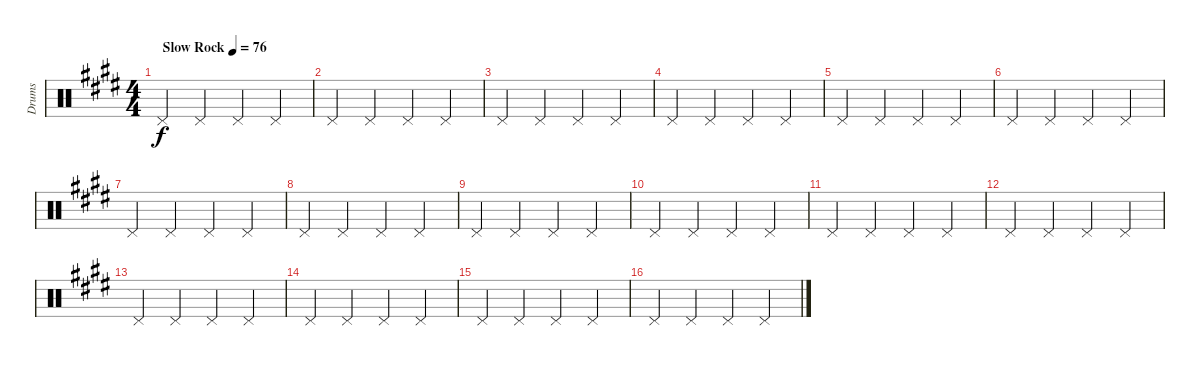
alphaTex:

\track ("Drums" "Drums") {instrument percussion}
\staff {score}
\articulation defaults
\ts (4 4)
\tempo (76 "Slow Rock")
\clef neutral
\ks c#minor "Pedal Hi-Hat (hit)".4{dy f} "Pedal Hi-Hat (hit)".4 "Pedal Hi-Hat (hit)".4 "Pedal Hi-Hat (hit)".4
|
"Pedal Hi-Hat (hit)".4 "Pedal Hi-Hat (hit)".4 "Pedal Hi-Hat (hit)".4 "Pedal Hi-Hat (hit)".4 |
"Pedal Hi-Hat (hit)".4 "Pedal Hi-Hat (hit)".4 "Pedal Hi-Hat (hit)".4 "Pedal Hi-Hat (hit)".4 |
"Pedal Hi-Hat (hit)".4 "Pedal Hi-Hat (hit)".4 "Pedal Hi-Hat (hit)".4 "Pedal Hi-Hat (hit)".4 |
"Pedal Hi-Hat (hit)".4 "Pedal Hi-Hat (hit)".4 "Pedal Hi-Hat (hit)".4 "Pedal Hi-Hat (hit)".4 |
"Pedal Hi-Hat (hit)".4 "Pedal Hi-Hat (hit)".4 "Pedal Hi-Hat (hit)".4 "Pedal Hi-Hat (hit)".4 |
"Pedal Hi-Hat (hit)".4 "Pedal Hi-Hat (hit)".4 "Pedal Hi-Hat (hit)".4 "Pedal Hi-Hat (hit)".4 |
"Pedal Hi-Hat (hit)".4 "Pedal Hi-Hat (hit)".4 "Pedal Hi-Hat (hit)".4 "Pedal Hi-Hat (hit)".4 |
"Pedal Hi-Hat (hit)".4 "Pedal Hi-Hat (hit)".4 "Pedal Hi-Hat (hit)".4 "Pedal Hi-Hat (hit)".4 |
"Pedal Hi-Hat (hit)".4 "Pedal Hi-Hat (hit)".4 "Pedal Hi-Hat (hit)".4 "Pedal Hi-Hat (hit)".4 |
"Pedal Hi-Hat (hit)".4 "Pedal Hi-Hat (hit)".4 "Pedal Hi-Hat (hit)".4 "Pedal Hi-Hat (hit)".4 |
"Pedal Hi-Hat (hit)".4 "Pedal Hi-Hat (hit)".4 "Pedal Hi-Hat (hit)".4 "Pedal Hi-Hat (hit)".4 |
"Pedal Hi-Hat (hit)".4 "Pedal Hi-Hat (hit)".4 "Pedal Hi-Hat (hit)".4 "Pedal Hi-Hat (hit)".4 |
"Pedal Hi-Hat (hit)".4 "Pedal Hi-Hat (hit)".4 "Pedal Hi-Hat (hit)".4 "Pedal Hi-Hat (hit)".4 |
"Pedal Hi-Hat (hit)".4 "Pedal Hi-Hat (hit)".4 "Pedal Hi-Hat (hit)".4 "Pedal Hi-Hat (hit)".4 |
"Pedal Hi-Hat (hit)".4 "Pedal Hi-Hat (hit)".4 "Pedal Hi-Hat (hit)".4 "Pedal Hi-Hat (hit)".4
